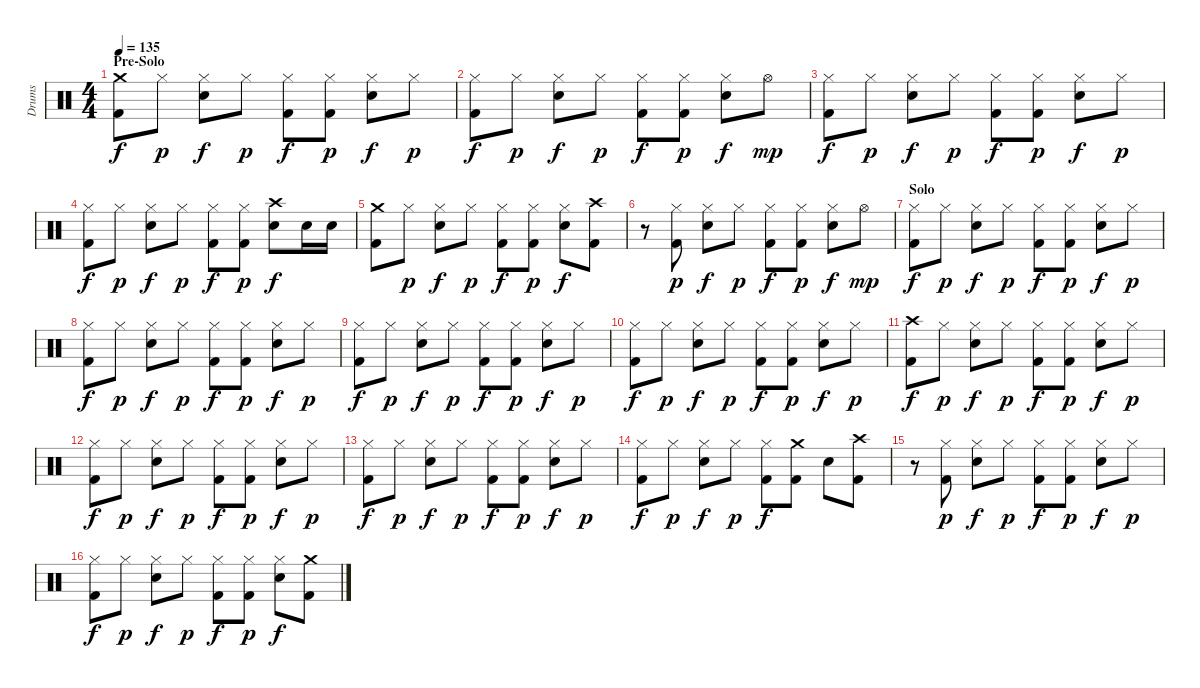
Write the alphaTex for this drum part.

\track ("Drums" "Drums") {instrument percussion}
\staff {score}
\articulation defaults
\ts (4 4)
\section ("" "Pre-Solo")
\tempo 135
\clef neutral
\ks c
("Crash medium (hit)" "Kick (hit) 2").8{dy f} "Hi-Hat (closed)".8{dy p} ("Hi-Hat (closed)" "Snare (hit) 2").8{dy f} "Hi-Hat (closed)".8{dy p} ("Hi-Hat (closed)" "Kick (hit) 2").8{dy f} ("Hi-Hat (closed)" "Kick (hit) 2").8{dy p} ("Hi-Hat (closed)" "Snare (hit) 2").8{dy f} "Hi-Hat (closed)".8{dy p} |
("Hi-Hat (closed)" "Kick (hit) 2").8{dy f} "Hi-Hat (closed)".8{dy p} ("Hi-Hat (closed)" "Snare (hit) 2").8{dy f} "Hi-Hat (closed)".8{dy p} ("Hi-Hat (closed)" "Kick (hit) 2").8{dy f} ("Hi-Hat (closed)" "Kick (hit) 2").8{dy p} ("Hi-Hat (closed)" "Snare (hit) 2").8{dy f} "Hi-Hat (open)".8{dy mp} |
("Hi-Hat (closed)" "Kick (hit) 2").8{dy f} "Hi-Hat (closed)".8{dy p} ("Hi-Hat (closed)" "Snare (hit) 2").8{dy f} "Hi-Hat (closed)".8{dy p} ("Hi-Hat (closed)" "Kick (hit) 2").8{dy f} ("Hi-Hat (closed)" "Kick (hit) 2").8{dy p} ("Hi-Hat (closed)" "Snare (hit) 2").8{dy f} "Hi-Hat (closed)".8{dy p} |
("Hi-Hat (closed)" "Kick (hit) 2").8{dy f} "Hi-Hat (closed)".8{dy p} ("Hi-Hat (closed)" "Snare (hit) 2").8{dy f} "Hi-Hat (closed)".8{dy p} ("Hi-Hat (closed)" "Kick (hit) 2").8{dy f} ("Hi-Hat (closed)" "Kick (hit) 2").8{dy p} ("Crash high (hit)" "Snare (hit) 2").8{dy f} "Snare (hit) 2".16 "Snare (hit) 2".16 |
("Crash medium (hit)" "Kick (hit) 2").8 "Hi-Hat (closed)".8{dy p} ("Hi-Hat (closed)" "Snare (hit) 2").8{dy f} "Hi-Hat (closed)".8{dy p} ("Hi-Hat (closed)" "Kick (hit) 2").8{dy f} ("Hi-Hat (closed)" "Kick (hit) 2").8{dy p} ("Hi-Hat (closed)" "Snare (hit) 2").8{dy f} ("Crash high (hit)" "Kick (hit) 2").8 |
r.8 ("Hi-Hat (closed)" "Kick (hit) 2").8{dy p} ("Hi-Hat (closed)" "Snare (hit) 2").8{dy f} "Hi-Hat (closed)".8{dy p} ("Hi-Hat (closed)" "Kick (hit) 2").8{dy f} ("Hi-Hat (closed)" "Kick (hit) 2").8{dy p} ("Hi-Hat (closed)" "Snare (hit) 2").8{dy f} "Hi-Hat (open)".8{dy mp} |
\section ("" "Solo")
("Hi-Hat (closed)" "Kick (hit) 2").8{dy f} "Hi-Hat (closed)".8{dy p} ("Hi-Hat (closed)" "Snare (hit) 2").8{dy f} "Hi-Hat (closed)".8{dy p} ("Hi-Hat (closed)" "Kick (hit) 2").8{dy f} ("Hi-Hat (closed)" "Kick (hit) 2").8{dy p} ("Hi-Hat (closed)" "Snare (hit) 2").8{dy f} "Hi-Hat (closed)".8{dy p} |
("Hi-Hat (closed)" "Kick (hit) 2").8{dy f} "Hi-Hat (closed)".8{dy p} ("Hi-Hat (closed)" "Snare (hit) 2").8{dy f} "Hi-Hat (closed)".8{dy p} ("Hi-Hat (closed)" "Kick (hit) 2").8{dy f} ("Hi-Hat (closed)" "Kick (hit) 2").8{dy p} ("Hi-Hat (closed)" "Snare (hit) 2").8{dy f} "Hi-Hat (closed)".8{dy p} |
("Hi-Hat (closed)" "Kick (hit) 2").8{dy f} "Hi-Hat (closed)".8{dy p} ("Hi-Hat (closed)" "Snare (hit) 2").8{dy f} "Hi-Hat (closed)".8{dy p} ("Hi-Hat (closed)" "Kick (hit) 2").8{dy f} ("Hi-Hat (closed)" "Kick (hit) 2").8{dy p} ("Hi-Hat (closed)" "Snare (hit) 2").8{dy f} "Hi-Hat (closed)".8{dy p} |
("Hi-Hat (closed)" "Kick (hit) 2").8{dy f} "Hi-Hat (closed)".8{dy p} ("Hi-Hat (closed)" "Snare (hit) 2").8{dy f} "Hi-Hat (closed)".8{dy p} ("Hi-Hat (closed)" "Kick (hit) 2").8{dy f} ("Hi-Hat (closed)" "Kick (hit) 2").8{dy p} ("Hi-Hat (closed)" "Snare (hit) 2").8{dy f} "Hi-Hat (closed)".8{dy p} |
("Crash high (hit)" "Kick (hit) 2").8{dy f} "Hi-Hat (closed)".8{dy p} ("Hi-Hat (closed)" "Snare (hit) 2").8{dy f} "Hi-Hat (closed)".8{dy p} ("Hi-Hat (closed)" "Kick (hit) 2").8{dy f} ("Hi-Hat (closed)" "Kick (hit) 2").8{dy p} ("Hi-Hat (closed)" "Snare (hit) 2").8{dy f} "Hi-Hat (closed)".8{dy p} |
("Hi-Hat (closed)" "Kick (hit) 2").8{dy f} "Hi-Hat (closed)".8{dy p} ("Hi-Hat (closed)" "Snare (hit) 2").8{dy f} "Hi-Hat (closed)".8{dy p} ("Hi-Hat (closed)" "Kick (hit) 2").8{dy f} ("Hi-Hat (closed)" "Kick (hit) 2").8{dy p} ("Hi-Hat (closed)" "Snare (hit) 2").8{dy f} "Hi-Hat (closed)".8{dy p} |
("Hi-Hat (closed)" "Kick (hit) 2").8{dy f} "Hi-Hat (closed)".8{dy p} ("Hi-Hat (closed)" "Snare (hit) 2").8{dy f} "Hi-Hat (closed)".8{dy p} ("Hi-Hat (closed)" "Kick (hit) 2").8{dy f} ("Hi-Hat (closed)" "Kick (hit) 2").8{dy p} ("Hi-Hat (closed)" "Snare (hit) 2").8{dy f} "Hi-Hat (closed)".8{dy p} |
("Hi-Hat (closed)" "Kick (hit) 2").8{dy f} "Hi-Hat (closed)".8{dy p} ("Hi-Hat (closed)" "Snare (hit) 2").8{dy f} "Hi-Hat (closed)".8{dy p} ("Hi-Hat (closed)" "Kick (hit) 2").8{dy f} ("Crash medium (hit)" "Kick (hit) 2").8 "Snare (hit) 2".8 ("Crash high (hit)" "Kick (hit) 2").8 |
r.8 ("Hi-Hat (closed)" "Kick (hit) 2").8{dy p} ("Hi-Hat (closed)" "Snare (hit) 2").8{dy f} "Hi-Hat (closed)".8{dy p} ("Hi-Hat (closed)" "Kick (hit) 2").8{dy f} ("Hi-Hat (closed)" "Kick (hit) 2").8{dy p} ("Hi-Hat (closed)" "Snare (hit) 2").8{dy f} "Hi-Hat (closed)".8{dy p} |
("Hi-Hat (closed)" "Kick (hit) 2").8{dy f} "Hi-Hat (closed)".8{dy p} ("Hi-Hat (closed)" "Snare (hit) 2").8{dy f} "Hi-Hat (closed)".8{dy p} ("Hi-Hat (closed)" "Kick (hit) 2").8{dy f} ("Hi-Hat (closed)" "Kick (hit) 2").8{dy p} ("Hi-Hat (closed)" "Snare (hit) 2").8{dy f} ("Crash medium (hit)" "Kick (hit) 2").8
